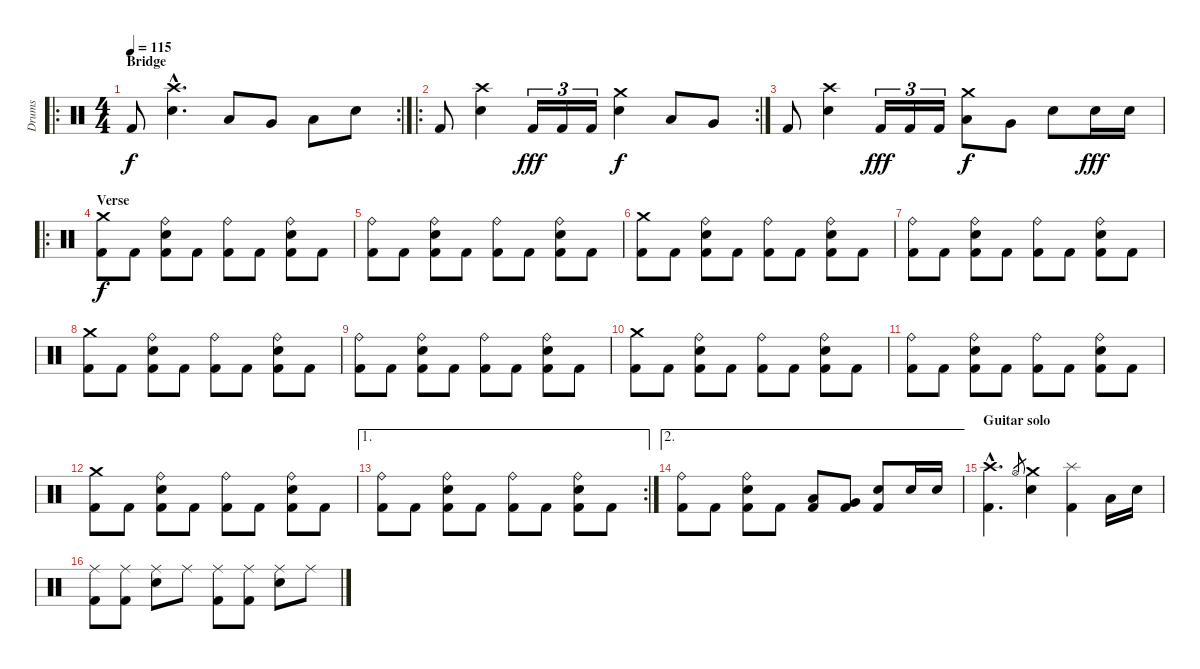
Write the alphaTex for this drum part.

\track ("Drums" "Drums") {instrument percussion}
\staff {score}
\articulation defaults
\ro
\rc 2
\ts (4 4)
\section ("" "Bridge")
\tempo 115
\clef neutral
\ks c "Kick (hit) 2".8{dy f}
("Crash high (hit)"{hac} "Electric Snare (hit)"{hac}).4{d} "Low Tom (hit)".8 "Very Low Tom (hit)".8 "Low Floor Tom (hit)".8 "Electric Snare (hit)".8 |
\ro
\rc 2 "Kick (hit) 2".8
("Crash high (hit)" "Electric Snare (hit)").4 "Kick (hit) 2".16{tu (3 2) dy fff} "Kick (hit) 2".16{tu (3 2)} "Kick (hit) 2".16{tu (3 2)} ("Crash medium (hit)" "Electric Snare (hit)").4{dy f} "Low Floor Tom (hit)".8 "Very Low Tom (hit)".8 |
"Kick (hit) 2".8 ("Crash high (hit)" "Electric Snare (hit)").4 "Kick (hit) 2".16{tu (3 2) dy fff} "Kick (hit) 2".16{tu (3 2)} "Kick (hit) 2".16{tu (3 2)} ("Crash medium (hit)" "Low Floor Tom (hit)").8{dy f} "Very Low Tom (hit)".8 "Electric Snare (hit)".8 "Electric Snare (hit)".16{dy fff} "Electric Snare (hit)".16 |
\ro
\section ("" "Verse")
("Crash medium (hit)" "Kick (hit) 2").8{dy f} "Kick (hit) 2".8 ("Ride (bell)" "Kick (hit) 2" "Electric Snare (hit)").8 "Kick (hit) 2".8 ("Ride (bell)" "Kick (hit) 2").8 "Kick (hit) 2".8 ("Ride (bell)" "Kick (hit) 2" "Electric Snare (hit)").8 "Kick (hit) 2".8 |
("Ride (bell)" "Kick (hit) 2").8 "Kick (hit) 2".8 ("Ride (bell)" "Kick (hit) 2" "Electric Snare (hit)").8 "Kick (hit) 2".8 ("Ride (bell)" "Kick (hit) 2").8 "Kick (hit) 2".8 ("Ride (bell)" "Kick (hit) 2" "Electric Snare (hit)").8 "Kick (hit) 2".8 |
("Crash medium (hit)" "Kick (hit) 2").8 "Kick (hit) 2".8 ("Ride (bell)" "Kick (hit) 2" "Electric Snare (hit)").8 "Kick (hit) 2".8 ("Ride (bell)" "Kick (hit) 2").8 "Kick (hit) 2".8 ("Ride (bell)" "Kick (hit) 2" "Electric Snare (hit)").8 "Kick (hit) 2".8 |
("Ride (bell)" "Kick (hit) 2").8 "Kick (hit) 2".8 ("Ride (bell)" "Kick (hit) 2" "Electric Snare (hit)").8 "Kick (hit) 2".8 ("Ride (bell)" "Kick (hit) 2").8 "Kick (hit) 2".8 ("Ride (bell)" "Kick (hit) 2" "Electric Snare (hit)").8 "Kick (hit) 2".8 |
("Crash medium (hit)" "Kick (hit) 2").8 "Kick (hit) 2".8 ("Ride (bell)" "Kick (hit) 2" "Electric Snare (hit)").8 "Kick (hit) 2".8 ("Ride (bell)" "Kick (hit) 2").8 "Kick (hit) 2".8 ("Ride (bell)" "Kick (hit) 2" "Electric Snare (hit)").8 "Kick (hit) 2".8 |
("Ride (bell)" "Kick (hit) 2").8 "Kick (hit) 2".8 ("Ride (bell)" "Kick (hit) 2" "Electric Snare (hit)").8 "Kick (hit) 2".8 ("Ride (bell)" "Kick (hit) 2").8 "Kick (hit) 2".8 ("Ride (bell)" "Kick (hit) 2" "Electric Snare (hit)").8 "Kick (hit) 2".8 |
("Crash medium (hit)" "Kick (hit) 2").8 "Kick (hit) 2".8 ("Ride (bell)" "Kick (hit) 2" "Electric Snare (hit)").8 "Kick (hit) 2".8 ("Ride (bell)" "Kick (hit) 2").8 "Kick (hit) 2".8 ("Ride (bell)" "Kick (hit) 2" "Electric Snare (hit)").8 "Kick (hit) 2".8 |
("Ride (bell)" "Kick (hit) 2").8 "Kick (hit) 2".8 ("Ride (bell)" "Kick (hit) 2" "Electric Snare (hit)").8 "Kick (hit) 2".8 ("Ride (bell)" "Kick (hit) 2").8 "Kick (hit) 2".8 ("Ride (bell)" "Kick (hit) 2" "Electric Snare (hit)").8 "Kick (hit) 2".8 |
("Crash medium (hit)" "Kick (hit) 2").8 "Kick (hit) 2".8 ("Ride (bell)" "Kick (hit) 2" "Electric Snare (hit)").8 "Kick (hit) 2".8 ("Ride (bell)" "Kick (hit) 2").8 "Kick (hit) 2".8 ("Ride (bell)" "Kick (hit) 2" "Electric Snare (hit)").8 "Kick (hit) 2".8 |
\ae 1
\rc 2
("Ride (bell)" "Kick (hit) 2").8 "Kick (hit) 2".8 ("Ride (bell)" "Kick (hit) 2" "Electric Snare (hit)").8 "Kick (hit) 2".8 ("Ride (bell)" "Kick (hit) 2").8 "Kick (hit) 2".8 ("Ride (bell)" "Kick (hit) 2" "Electric Snare (hit)").8 "Kick (hit) 2".8 |
\ae 2
("Ride (bell)" "Kick (hit) 2").8 "Kick (hit) 2".8 ("Ride (bell)" "Kick (hit) 2" "Electric Snare (hit)").8 "Kick (hit) 2".8 ("Kick (hit) 2" "Low Floor Tom (hit)").8 ("Kick (hit) 2" "Very Low Tom (hit)").8 ("Kick (hit) 2" "Electric Snare (hit)").8 "Electric Snare (hit)".16 "Electric Snare (hit)".16 |
\section ("" "Guitar solo")
("Crash high (hit)"{hac} "Kick (hit) 2"{hac}).4{d} "Hi-Hat (open)".8{gr} ("Crash medium (hit)" "Electric Snare (hit)").4 ("Splash (hit)" "Kick (hit) 2").4 "Low Floor Tom (hit)".16 "Electric Snare (hit)".16 |
("Ride (middle)" "Kick (hit) 2").8 ("Ride (middle)" "Kick (hit) 2").8 ("Ride (middle)" "Electric Snare (hit)").8 "Ride (middle)".8 ("Ride (middle)" "Kick (hit) 2").8 ("Ride (middle)" "Kick (hit) 2").8 ("Ride (middle)" "Electric Snare (hit)").8 "Ride (middle)".8
